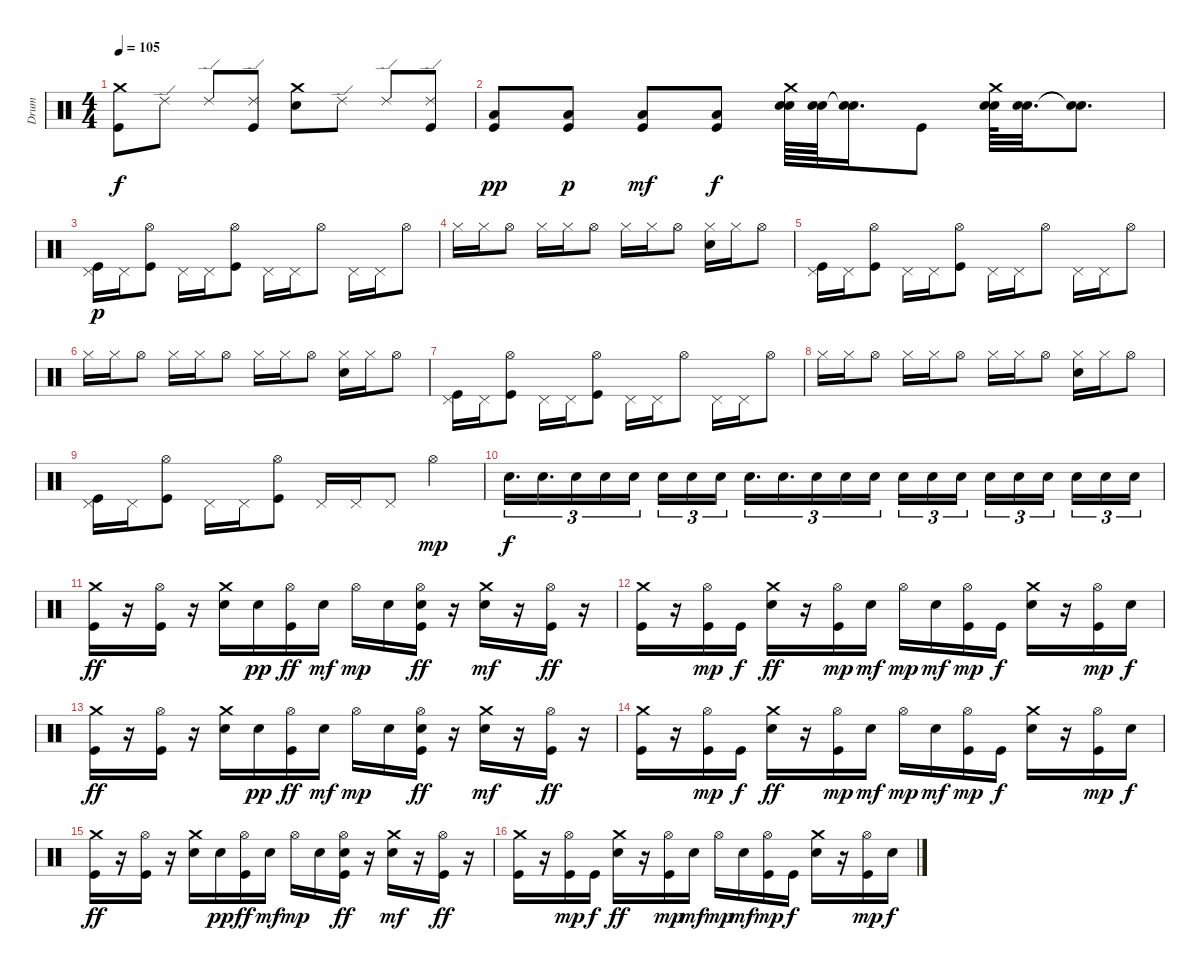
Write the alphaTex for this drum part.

\track ("Drum" "Drum") {instrument percussion}
\staff {score}
\articulation defaults
\ts (4 4)
\tempo 105
\clef neutral
\ks c
("Crash medium (hit)" "Kick (hit)").8{dy f} "Ride (edge) 2".8 "Ride (edge) 2".8 ("Ride (edge) 2" "Kick (hit)").8 ("Crash medium (hit)" "Electric Snare (hit)").8 "Ride (edge) 2".8 "Ride (edge) 2".8 ("Ride (edge) 2" "Kick (hit)").8 |
("Low Floor Tom (hit)" "Kick (hit)").8{dy pp} ("Low Floor Tom (hit)" "Kick (hit)").8{dy p} ("Low Floor Tom (hit)" "Kick (hit)").8{dy mf} ("Low Floor Tom (hit)" "Kick (hit)").8{dy f} ("Crash medium (hit)" "Electric Snare (hit)" "Electric Snare (hit)").64 ("Electric Snare (hit)" "Electric Snare (hit)").64 ("Snare (hit)"{t} "Snare (hit)"{t}).16{d} "Kick (hit)".8 ("Crash medium (hit)" "Electric Snare (hit)" "Electric Snare (hit)").64 ("Electric Snare (hit)" "Electric Snare (hit)").32{d} ("Snare (hit)"{t} "Snare (hit)"{t}).8{d} |
("Pedal Hi-Hat (hit)" "Kick (hit)").16{dy p} "Pedal Hi-Hat (hit)".16 ("Hi-Hat (open)" "Kick (hit)").8 "Pedal Hi-Hat (hit)".16 "Pedal Hi-Hat (hit)".16 ("Hi-Hat (open)" "Kick (hit)").8 "Pedal Hi-Hat (hit)".16 "Pedal Hi-Hat (hit)".16 "Hi-Hat (open)".8 "Pedal Hi-Hat (hit)".16 "Pedal Hi-Hat (hit)".16 "Hi-Hat (open)".8 |
"Hi-Hat (closed)".16 "Hi-Hat (closed)".16 "Hi-Hat (open)".8 "Hi-Hat (closed)".16 "Hi-Hat (closed)".16 "Hi-Hat (open)".8 "Hi-Hat (closed)".16 "Hi-Hat (closed)".16 "Hi-Hat (open)".8 ("Hi-Hat (closed)" "Electric Snare (hit)").16 "Hi-Hat (closed)".16 "Hi-Hat (open)".8 |
("Pedal Hi-Hat (hit)" "Kick (hit)").16 "Pedal Hi-Hat (hit)".16 ("Hi-Hat (open)" "Kick (hit)").8 "Pedal Hi-Hat (hit)".16 "Pedal Hi-Hat (hit)".16 ("Hi-Hat (open)" "Kick (hit)").8 "Pedal Hi-Hat (hit)".16 "Pedal Hi-Hat (hit)".16 "Hi-Hat (open)".8 "Pedal Hi-Hat (hit)".16 "Pedal Hi-Hat (hit)".16 "Hi-Hat (open)".8 |
"Hi-Hat (closed)".16 "Hi-Hat (closed)".16 "Hi-Hat (open)".8 "Hi-Hat (closed)".16 "Hi-Hat (closed)".16 "Hi-Hat (open)".8 "Hi-Hat (closed)".16 "Hi-Hat (closed)".16 "Hi-Hat (open)".8 ("Hi-Hat (closed)" "Electric Snare (hit)").16 "Hi-Hat (closed)".16 "Hi-Hat (open)".8 |
("Pedal Hi-Hat (hit)" "Kick (hit)").16 "Pedal Hi-Hat (hit)".16 ("Hi-Hat (open)" "Kick (hit)").8 "Pedal Hi-Hat (hit)".16 "Pedal Hi-Hat (hit)".16 ("Hi-Hat (open)" "Kick (hit)").8 "Pedal Hi-Hat (hit)".16 "Pedal Hi-Hat (hit)".16 "Hi-Hat (open)".8 "Pedal Hi-Hat (hit)".16 "Pedal Hi-Hat (hit)".16 "Hi-Hat (open)".8 |
"Hi-Hat (closed)".16 "Hi-Hat (closed)".16 "Hi-Hat (open)".8 "Hi-Hat (closed)".16 "Hi-Hat (closed)".16 "Hi-Hat (open)".8 "Hi-Hat (closed)".16 "Hi-Hat (closed)".16 "Hi-Hat (open)".8 ("Hi-Hat (closed)" "Electric Snare (hit)").16 "Hi-Hat (closed)".16 "Hi-Hat (open)".8 |
("Pedal Hi-Hat (hit)" "Kick (hit)").16 "Pedal Hi-Hat (hit)".16 ("Hi-Hat (open)" "Kick (hit)").8 "Pedal Hi-Hat (hit)".16 "Pedal Hi-Hat (hit)".16 ("Hi-Hat (open)" "Kick (hit)").8 "Pedal Hi-Hat (hit)".16 "Pedal Hi-Hat (hit)".16 "Pedal Hi-Hat (hit)".8 "Hi-Hat (open)".4{dy mp} |
"Electric Snare (hit)".16{d tu (3 2) dy f} "Electric Snare (hit)".16{d tu (3 2)} "Electric Snare (hit)".16{tu (3 2)} "Electric Snare (hit)".16{tu (3 2)} "Electric Snare (hit)".16{tu (3 2)} "Electric Snare (hit)".16{tu (3 2)} "Electric Snare (hit)".16{tu (3 2)} "Electric Snare (hit)".16{tu (3 2)} "Electric Snare (hit)".16{d tu (3 2)} "Electric Snare (hit)".16{d tu (3 2)} "Electric Snare (hit)".16{tu (3 2)} "Electric Snare (hit)".16{tu (3 2)} "Electric Snare (hit)".16{tu (3 2)} "Electric Snare (hit)".16{tu (3 2)} "Electric Snare (hit)".16{tu (3 2)} "Electric Snare (hit)".16{tu (3 2)} "Electric Snare (hit)".16{tu (3 2)} "Electric Snare (hit)".16{tu (3 2)} "Electric Snare (hit)".16{tu (3 2)} "Electric Snare (hit)".16{tu (3 2)} "Electric Snare (hit)".16{tu (3 2)} "Electric Snare (hit)".16{tu (3 2)} |
("Crash medium (hit)" "Kick (hit)").16{dy ff} r.16 ("Hi-Hat (open)" "Kick (hit)").16 r.16 ("Crash medium (hit)" "Electric Snare (hit)").16 "Electric Snare (hit)".16{dy pp} ("Hi-Hat (open)" "Kick (hit)").16{dy ff} "Electric Snare (hit)".16{dy mf} "Hi-Hat (open)".16{dy mp} "Electric Snare (hit)".16 ("Hi-Hat (open)" "Electric Snare (hit)" "Kick (hit)").16{dy ff} r.16 ("Crash medium (hit)" "Electric Snare (hit)").16{dy mf} r.16 ("Hi-Hat (open)" "Kick (hit)").16{dy ff} r.16 |
("Crash medium (hit)" "Kick (hit)").16 r.16 ("Hi-Hat (open)" "Kick (hit)").16{dy mp} "Kick (hit)".16{dy f} ("Crash medium (hit)" "Electric Snare (hit)").16{dy ff} r.16 ("Hi-Hat (open)" "Kick (hit)").16{dy mp} "Electric Snare (hit)".16{dy mf} "Hi-Hat (open)".16{dy mp} "Electric Snare (hit)".16{dy mf} ("Hi-Hat (open)" "Kick (hit)").16{dy mp} "Kick (hit)".16{dy f} ("Crash medium (hit)" "Electric Snare (hit)").16 r.16 ("Hi-Hat (open)" "Kick (hit)").16{dy mp} "Electric Snare (hit)".16{dy f} |
("Crash medium (hit)" "Kick (hit)").16{dy ff} r.16 ("Hi-Hat (open)" "Kick (hit)").16 r.16 ("Crash medium (hit)" "Electric Snare (hit)").16 "Electric Snare (hit)".16{dy pp} ("Hi-Hat (open)" "Kick (hit)").16{dy ff} "Electric Snare (hit)".16{dy mf} "Hi-Hat (open)".16{dy mp} "Electric Snare (hit)".16 ("Hi-Hat (open)" "Electric Snare (hit)" "Kick (hit)").16{dy ff} r.16 ("Crash medium (hit)" "Electric Snare (hit)").16{dy mf} r.16 ("Hi-Hat (open)" "Kick (hit)").16{dy ff} r.16 |
("Crash medium (hit)" "Kick (hit)").16 r.16 ("Hi-Hat (open)" "Kick (hit)").16{dy mp} "Kick (hit)".16{dy f} ("Crash medium (hit)" "Electric Snare (hit)").16{dy ff} r.16 ("Hi-Hat (open)" "Kick (hit)").16{dy mp} "Electric Snare (hit)".16{dy mf} "Hi-Hat (open)".16{dy mp} "Electric Snare (hit)".16{dy mf} ("Hi-Hat (open)" "Kick (hit)").16{dy mp} "Kick (hit)".16{dy f} ("Crash medium (hit)" "Electric Snare (hit)").16 r.16 ("Hi-Hat (open)" "Kick (hit)").16{dy mp} "Electric Snare (hit)".16{dy f} |
("Crash medium (hit)" "Kick (hit)").16{dy ff} r.16 ("Hi-Hat (open)" "Kick (hit)").16 r.16 ("Crash medium (hit)" "Electric Snare (hit)").16 "Electric Snare (hit)".16{dy pp} ("Hi-Hat (open)" "Kick (hit)").16{dy ff} "Electric Snare (hit)".16{dy mf} "Hi-Hat (open)".16{dy mp} "Electric Snare (hit)".16 ("Hi-Hat (open)" "Electric Snare (hit)" "Kick (hit)").16{dy ff} r.16 ("Crash medium (hit)" "Electric Snare (hit)").16{dy mf} r.16 ("Hi-Hat (open)" "Kick (hit)").16{dy ff} r.16 |
("Crash medium (hit)" "Kick (hit)").16 r.16 ("Hi-Hat (open)" "Kick (hit)").16{dy mp} "Kick (hit)".16{dy f} ("Crash medium (hit)" "Electric Snare (hit)").16{dy ff} r.16 ("Hi-Hat (open)" "Kick (hit)").16{dy mp} "Electric Snare (hit)".16{dy mf} "Hi-Hat (open)".16{dy mp} "Electric Snare (hit)".16{dy mf} ("Hi-Hat (open)" "Kick (hit)").16{dy mp} "Kick (hit)".16{dy f} ("Crash medium (hit)" "Electric Snare (hit)").16 r.16 ("Hi-Hat (open)" "Kick (hit)").16{dy mp} "Electric Snare (hit)".16{dy f}
